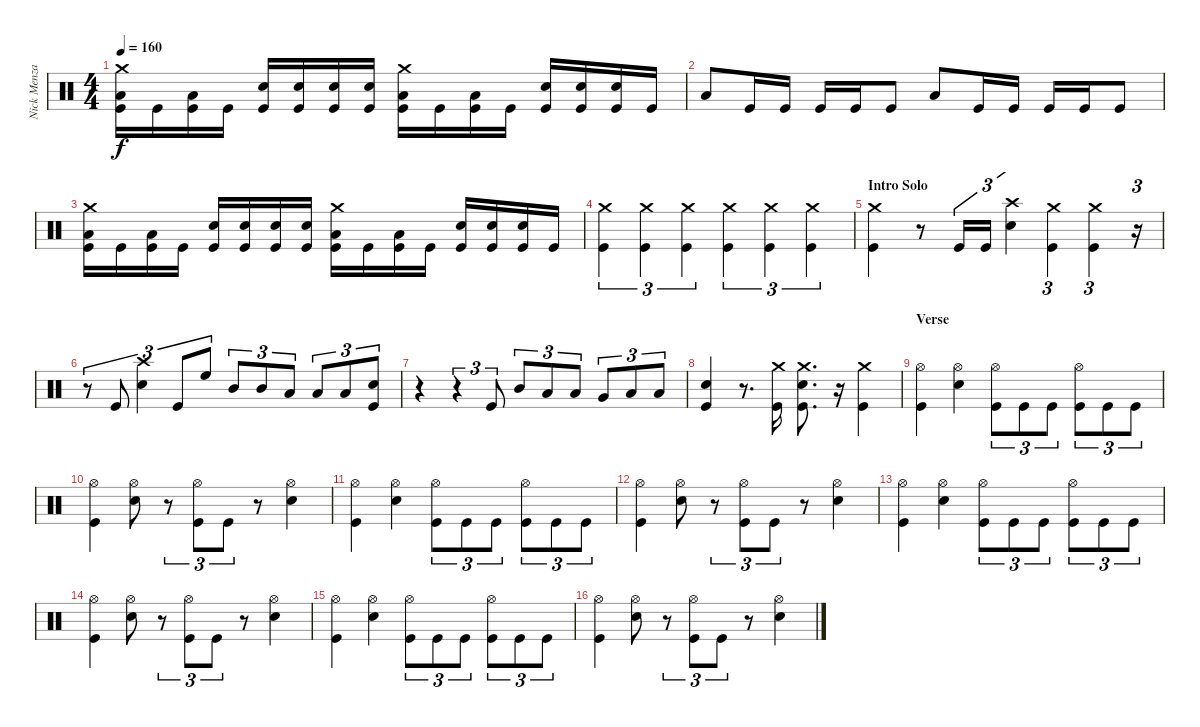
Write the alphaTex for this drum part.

\track ("Nick Menza" "Nick Menza") {instrument percussion}
\staff {score}
\articulation defaults
\ts (4 4)
\tempo 160
\clef neutral
\ks c
("Crash medium (hit)" "Low Floor Tom (hit)" "Kick (hit)").16{dy f} "Kick (hit)".16 ("Low Floor Tom (hit)" "Kick (hit)").16 "Kick (hit)".16 ("Snare (hit) 2" "Kick (hit)").16 ("Snare (hit) 2" "Kick (hit)").16 ("Snare (hit) 2" "Kick (hit)").16 ("Snare (hit) 2" "Kick (hit)").16 ("Crash medium (hit)" "Low Floor Tom (hit)" "Kick (hit)").16 "Kick (hit)".16 ("Low Floor Tom (hit)" "Kick (hit)").16 "Kick (hit)".16 ("Snare (hit) 2" "Kick (hit)").16 ("Snare (hit) 2" "Kick (hit)").16 ("Snare (hit) 2" "Kick (hit)").16 "Kick (hit)".16 |
"Low Floor Tom (hit)".8 "Kick (hit)".16 "Kick (hit)".16 "Kick (hit)".16 "Kick (hit)".16 "Kick (hit)".8 "Low Floor Tom (hit)".8 "Kick (hit)".16 "Kick (hit)".16 "Kick (hit)".16 "Kick (hit)".16 "Kick (hit)".8 |
("Crash medium (hit)" "Low Floor Tom (hit)" "Kick (hit)").16 "Kick (hit)".16 ("Low Floor Tom (hit)" "Kick (hit)").16 "Kick (hit)".16 ("Snare (hit) 2" "Kick (hit)").16 ("Snare (hit) 2" "Kick (hit)").16 ("Snare (hit) 2" "Kick (hit)").16 ("Snare (hit) 2" "Kick (hit)").16 ("Crash medium (hit)" "Low Floor Tom (hit)" "Kick (hit)").16 "Kick (hit)".16 ("Low Floor Tom (hit)" "Kick (hit)").16 "Kick (hit)".16 ("Snare (hit) 2" "Kick (hit)").16 ("Snare (hit) 2" "Kick (hit)").16 ("Snare (hit) 2" "Kick (hit)").16 "Kick (hit)".16 |
("Crash medium (hit)" "Kick (hit)").4{tu (3 2)} ("Crash medium (hit)" "Kick (hit)").4{tu (3 2)} ("Crash medium (hit)" "Kick (hit)").4{tu (3 2)} ("Crash medium (hit)" "Kick (hit)").4{tu (3 2)} ("Crash medium (hit)" "Kick (hit)").4{tu (3 2)} ("Crash medium (hit)" "Kick (hit)").4{tu (3 2)} |
\section ("" "Intro Solo")
("Crash medium (hit)" "Kick (hit)").4 r.8 "Kick (hit)".16{tu (3 2)} "Kick (hit)".16{tu (3 2)} ("Crash high (hit)" "Snare (hit) 2").4{tu (3 2)} ("Crash medium (hit)" "Kick (hit)").4{tu (3 2)} ("Crash medium (hit)" "Kick (hit)").4{tu (3 2)} r.16{tu (3 2)} |
r.8{tu (3 2)} "Kick (hit)".8{tu (3 2)} ("Crash high (hit)" "Snare (hit) 2").4{tu (3 2)} "Kick (hit)".8{tu (3 2)} "High Floor Tom (hit)".8{tu (3 2)} "Mid Tom (hit)".8{tu (3 2)} "Mid Tom (hit)".8{tu (3 2)} "Low Tom (hit)".8{tu (3 2)} "Low Tom (hit)".8{tu (3 2)} "Low Tom (hit)".8{tu (3 2)} ("Electric Snare (hit)" "Kick (hit)").8{tu (3 2)} |
r.4 r.4{tu (3 2)} "Kick (hit)".8{tu (3 2)} "Mid Tom (hit)".8{tu (3 2)} "Low Tom (hit)".8{tu (3 2)} "Low Tom (hit)".8{tu (3 2)} "Very Low Tom (hit)".8{tu (3 2)} "Low Floor Tom (hit)".8{tu (3 2)} "Low Floor Tom (hit)".8{tu (3 2)} |
("Snare (hit) 2" "Kick (hit)").4 r.8{d} ("Crash medium (hit)" "Kick (hit)").16 ("Crash medium (hit)" "Snare (hit) 2" "Kick (hit)").8{d} r.16 ("Crash medium (hit)" "Kick (hit)").4 |
\section ("" "Verse")
("Hi-Hat (open)" "Kick (hit)").4 ("Hi-Hat (open)" "Snare (hit) 2").4 ("Hi-Hat (open)" "Kick (hit)").8{tu (3 2)} "Kick (hit)".8{tu (3 2)} "Kick (hit)".8{tu (3 2)} ("Hi-Hat (open)" "Kick (hit)").8{tu (3 2)} "Kick (hit)".8{tu (3 2)} "Kick (hit)".8{tu (3 2)} |
("Hi-Hat (open)" "Kick (hit)").4 ("Hi-Hat (open)" "Snare (hit) 2").8 r.8{tu (3 2)} ("Hi-Hat (open)" "Kick (hit)").8{tu (3 2)} "Kick (hit)".8{tu (3 2)} r.8 ("Hi-Hat (open)" "Snare (hit) 2").4 |
("Hi-Hat (open)" "Kick (hit)").4 ("Hi-Hat (open)" "Snare (hit) 2").4 ("Hi-Hat (open)" "Kick (hit)").8{tu (3 2)} "Kick (hit)".8{tu (3 2)} "Kick (hit)".8{tu (3 2)} ("Hi-Hat (open)" "Kick (hit)").8{tu (3 2)} "Kick (hit)".8{tu (3 2)} "Kick (hit)".8{tu (3 2)} |
("Hi-Hat (open)" "Kick (hit)").4 ("Hi-Hat (open)" "Snare (hit) 2").8 r.8{tu (3 2)} ("Hi-Hat (open)" "Kick (hit)").8{tu (3 2)} "Kick (hit)".8{tu (3 2)} r.8 ("Hi-Hat (open)" "Snare (hit) 2").4 |
("Hi-Hat (open)" "Kick (hit)").4 ("Hi-Hat (open)" "Snare (hit) 2").4 ("Hi-Hat (open)" "Kick (hit)").8{tu (3 2)} "Kick (hit)".8{tu (3 2)} "Kick (hit)".8{tu (3 2)} ("Hi-Hat (open)" "Kick (hit)").8{tu (3 2)} "Kick (hit)".8{tu (3 2)} "Kick (hit)".8{tu (3 2)} |
("Hi-Hat (open)" "Kick (hit)").4 ("Hi-Hat (open)" "Snare (hit) 2").8 r.8{tu (3 2)} ("Hi-Hat (open)" "Kick (hit)").8{tu (3 2)} "Kick (hit)".8{tu (3 2)} r.8 ("Hi-Hat (open)" "Snare (hit) 2").4 |
("Hi-Hat (open)" "Kick (hit)").4 ("Hi-Hat (open)" "Snare (hit) 2").4 ("Hi-Hat (open)" "Kick (hit)").8{tu (3 2)} "Kick (hit)".8{tu (3 2)} "Kick (hit)".8{tu (3 2)} ("Hi-Hat (open)" "Kick (hit)").8{tu (3 2)} "Kick (hit)".8{tu (3 2)} "Kick (hit)".8{tu (3 2)} |
("Hi-Hat (open)" "Kick (hit)").4 ("Hi-Hat (open)" "Snare (hit) 2").8 r.8{tu (3 2)} ("Hi-Hat (open)" "Kick (hit)").8{tu (3 2)} "Kick (hit)".8{tu (3 2)} r.8 ("Hi-Hat (open)" "Snare (hit) 2").4
